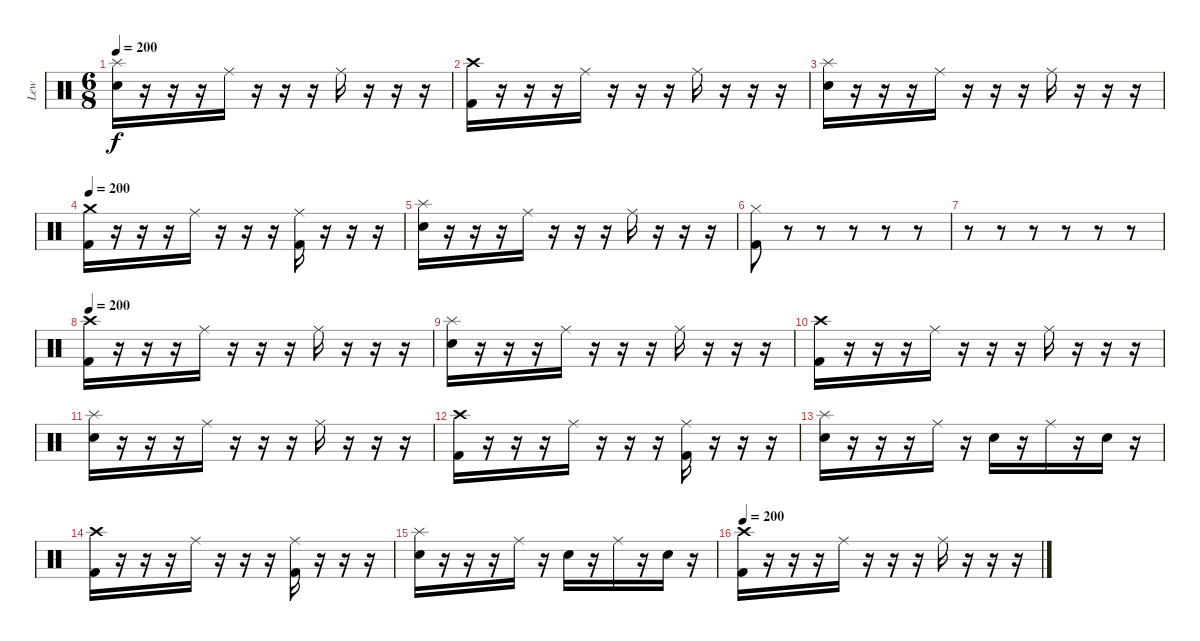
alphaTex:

\track ("Lew" "Lew") {instrument percussion}
\staff {score}
\articulation defaults
\ts (6 8)
\tempo 200
\clef neutral
\ks c
("Splash (hit)" "Electric Snare (hit)").16{dy f} r.16 r.16 r.16 "Ride (middle)".16 r.16 r.16 r.16 "Ride (middle)".16 r.16 r.16 r.16 |
("Crash high (hit)" "Kick (hit) 2").16 r.16 r.16 r.16 "Ride (middle)".16 r.16 r.16 r.16 "Ride (middle)".16 r.16 r.16 r.16 |
("Splash (hit)" "Electric Snare (hit)").16 r.16 r.16 r.16 "Ride (middle)".16 r.16 r.16 r.16 "Ride (middle)".16 r.16 r.16 r.16 |
\tempo 200
("Crash medium (hit)" "Kick (hit) 2").16 r.16 r.16 r.16 "Ride (middle)".16 r.16 r.16 r.16 ("Ride (middle)" "Kick (hit) 2").16 r.16 r.16 r.16 |
("Splash (hit)" "Electric Snare (hit)").16 r.16 r.16 r.16 "Ride (middle)".16 r.16 r.16 r.16 "Ride (middle)".16 r.16 r.16 r.16 |
("Hi-Hat (closed)" "Kick (hit) 2").8 r.8 r.8 r.8 r.8 r.8 |
r.8 r.8 r.8 r.8 r.8 r.8 |
\tempo 200
("Crash high (hit)" "Kick (hit) 2").16 r.16 r.16 r.16 "Ride (middle)".16 r.16 r.16 r.16 "Ride (middle)".16 r.16 r.16 r.16 |
("Splash (hit)" "Electric Snare (hit)").16 r.16 r.16 r.16 "Ride (middle)".16 r.16 r.16 r.16 "Ride (middle)".16 r.16 r.16 r.16 |
("Crash high (hit)" "Kick (hit) 2").16 r.16 r.16 r.16 "Ride (middle)".16 r.16 r.16 r.16 "Ride (middle)".16 r.16 r.16 r.16 |
("Splash (hit)" "Electric Snare (hit)").16 r.16 r.16 r.16 "Ride (middle)".16 r.16 r.16 r.16 "Ride (middle)".16 r.16 r.16 r.16 |
("Crash high (hit)" "Kick (hit) 2").16 r.16 r.16 r.16 "Ride (middle)".16 r.16 r.16 r.16 ("Ride (middle)" "Kick (hit) 2").16 r.16 r.16 r.16 |
("Splash (hit)" "Electric Snare (hit)").16 r.16 r.16 r.16 "Ride (middle)".16 r.16 "Electric Snare (hit)".16 r.16 "Ride (middle)".16 r.16 "Electric Snare (hit)".16 r.16 |
("Crash high (hit)" "Kick (hit) 2").16 r.16 r.16 r.16 "Ride (middle)".16 r.16 r.16 r.16 ("Ride (middle)" "Kick (hit) 2").16 r.16 r.16 r.16 |
("Splash (hit)" "Electric Snare (hit)").16 r.16 r.16 r.16 "Ride (middle)".16 r.16 "Electric Snare (hit)".16 r.16 "Ride (middle)".16 r.16 "Electric Snare (hit)".16 r.16 |
\tempo 200
("Crash high (hit)" "Kick (hit) 2").16 r.16 r.16 r.16 "Ride (middle)".16 r.16 r.16 r.16 "Ride (middle)".16 r.16 r.16 r.16
